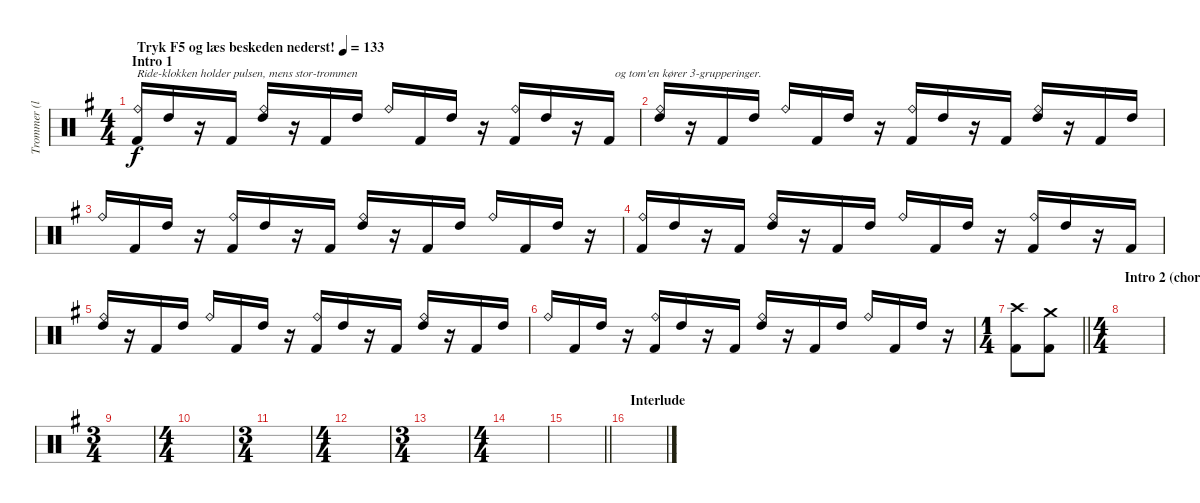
\track ("Trommer (lidt hjælp)" "Trommer (l") {instrument percussion}
\staff {score}
\articulation defaults
\ts (4 4)
\section ("" "Intro 1")
\tempo (133 "Tryk F5 og læs beskeden nederst!")
\clef neutral
\ks eminor
("Ride (bell)" "Kick (hit) 2").16{txt "Ride-klokken holder pulsen, mens stor-trommen" dy f beam Up} "High Tom (hit)".16{beam Up} r.16 "Kick (hit) 2".16 ("Ride (bell)" "High Tom (hit)").16{beam Up} r.16 "Kick (hit) 2".16{beam Up} "High Tom (hit)".16{beam Up} "Ride (bell)".16{beam Up} "Kick (hit) 2".16{beam Up} "High Tom (hit)".16{beam Up} r.16 ("Ride (bell)" "Kick (hit) 2").16{beam Up} "High Tom (hit)".16{beam Up} r.16 "Kick (hit) 2".16{txt "  og tom'en kører 3-grupperinger."} |
("Ride (bell)" "High Tom (hit)").16{beam Up} r.16 "Kick (hit) 2".16{beam Up} "High Tom (hit)".16{beam Up} "Ride (bell)".16{beam Up} "Kick (hit) 2".16{beam Up} "High Tom (hit)".16{beam Up} r.16 ("Ride (bell)" "Kick (hit) 2").16{beam Up} "High Tom (hit)".16{beam Up} r.16 "Kick (hit) 2".16 ("Ride (bell)" "High Tom (hit)").16{beam Up} r.16 "Kick (hit) 2".16{beam Up} "High Tom (hit)".16{beam Up} |
"Ride (bell)".16{beam Up} "Kick (hit) 2".16{beam Up} "High Tom (hit)".16{beam Up} r.16 ("Ride (bell)" "Kick (hit) 2").16{beam Up} "High Tom (hit)".16{beam Up} r.16 "Kick (hit) 2".16 ("Ride (bell)" "High Tom (hit)").16{beam Up} r.16 "Kick (hit) 2".16{beam Up} "High Tom (hit)".16{beam Up} "Ride (bell)".16{beam Up} "Kick (hit) 2".16{beam Up} "High Tom (hit)".16{beam Up} r.16 |
("Ride (bell)" "Kick (hit) 2").16{beam Up} "High Tom (hit)".16{beam Up} r.16 "Kick (hit) 2".16 ("Ride (bell)" "High Tom (hit)").16{beam Up} r.16 "Kick (hit) 2".16{beam Up} "High Tom (hit)".16{beam Up} "Ride (bell)".16{beam Up} "Kick (hit) 2".16{beam Up} "High Tom (hit)".16{beam Up} r.16 ("Ride (bell)" "Kick (hit) 2").16{beam Up} "High Tom (hit)".16{beam Up} r.16 "Kick (hit) 2".16 |
("Ride (bell)" "High Tom (hit)").16{beam Up} r.16 "Kick (hit) 2".16{beam Up} "High Tom (hit)".16{beam Up} "Ride (bell)".16{beam Up} "Kick (hit) 2".16{beam Up} "High Tom (hit)".16{beam Up} r.16 ("Ride (bell)" "Kick (hit) 2").16{beam Up} "High Tom (hit)".16{beam Up} r.16 "Kick (hit) 2".16 ("Ride (bell)" "High Tom (hit)").16{beam Up} r.16 "Kick (hit) 2".16{beam Up} "High Tom (hit)".16{beam Up} |
"Ride (bell)".16{beam Up} "Kick (hit) 2".16{beam Up} "High Tom (hit)".16{beam Up} r.16 ("Ride (bell)" "Kick (hit) 2").16{beam Up} "High Tom (hit)".16{beam Up} r.16 "Kick (hit) 2".16 ("Ride (bell)" "High Tom (hit)").16{beam Up} r.16 "Kick (hit) 2".16{beam Up} "High Tom (hit)".16{beam Up} "Ride (bell)".16{beam Up} "Kick (hit) 2".16{beam Up} "High Tom (hit)".16{beam Up} r.16 |
\ts (1 4)
\barLineRight lightlight
("Crash high (hit)" "Kick (hit) 2").8 ("Crash medium (hit)" "Kick (hit) 2").8 |
\ts (4 4)
\section ("" "Intro 2 (chorus)")
|
\ts (3 4)
|
\ts (4 4)
|
\ts (3 4)
|
\ts (4 4)
|
\ts (3 4)
|
\ts (4 4)
|
\barLineRight lightlight
|
\section ("" "Interlude")
